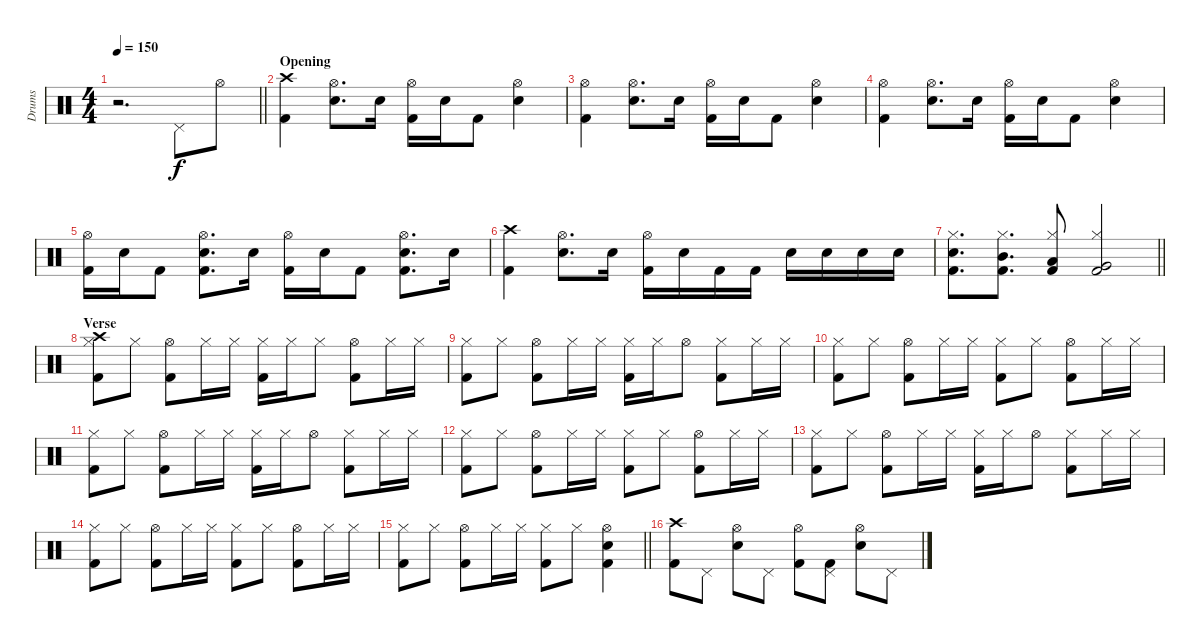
\track ("Drums" "Drums") {instrument percussion}
\staff {score}
\articulation defaults
\ts (4 4)
\tempo 150
\clef neutral
\barLineRight lightlight
\ks c
r.2{d dy f} "Pedal Hi-Hat (hit)".8 "Hi-Hat (open)".8 |
\section ("" "Opening")
("Crash high (hit)" "Kick (hit) 2").4 ("Hi-Hat (open)" "Snare (hit) 2").8{d} "Snare (hit) 2".16 ("Hi-Hat (open)" "Kick (hit) 2").16 "Snare (hit) 2".16 "Kick (hit) 2".8 ("Hi-Hat (open)" "Snare (hit) 2").4 |
("Hi-Hat (open)" "Kick (hit) 2").4 ("Hi-Hat (open)" "Snare (hit) 2").8{d} "Snare (hit) 2".16 ("Hi-Hat (open)" "Kick (hit) 2").16 "Snare (hit) 2".16 "Kick (hit) 2".8 ("Hi-Hat (open)" "Snare (hit) 2").4 |
("Hi-Hat (open)" "Kick (hit) 2").4 ("Hi-Hat (open)" "Snare (hit) 2").8{d} "Snare (hit) 2".16 ("Hi-Hat (open)" "Kick (hit) 2").16 "Snare (hit) 2".16 "Kick (hit) 2".8 ("Hi-Hat (open)" "Snare (hit) 2").4 |
("Hi-Hat (open)" "Kick (hit) 2").16 "Snare (hit) 2".16 "Kick (hit) 2".8 ("Hi-Hat (open)" "Snare (hit) 2" "Kick (hit) 2").8{d} "Snare (hit) 2".16 ("Hi-Hat (open)" "Kick (hit) 2").16 "Snare (hit) 2".16 "Kick (hit) 2".8 ("Hi-Hat (open)" "Snare (hit) 2" "Kick (hit) 2").8{d} "Snare (hit) 2".16 |
("Crash high (hit)" "Kick (hit) 2").4 ("Hi-Hat (open)" "Snare (hit) 2").8{d} "Snare (hit) 2".16 ("Hi-Hat (open)" "Kick (hit) 2").16 "Snare (hit) 2".16 "Kick (hit) 2".16 "Kick (hit) 2".16 "Snare (hit) 2".16 "Snare (hit) 2".16 "Snare (hit) 2".16 "Snare (hit) 2".16 |
\barLineRight lightlight
("Hi-Hat (closed)" "Snare (hit) 2" "Kick (hit) 2").8{d} ("Hi-Hat (closed)" "Mid Tom (hit)" "Kick (hit) 2").8{d} ("Hi-Hat (closed)" "Low Tom (hit)" "Kick (hit) 2").8 ("Hi-Hat (closed)" "Very Low Tom (hit)" "Kick (hit) 2").2 |
\section ("" "Verse")
("Hi-Hat (closed)" "Crash high (hit)" "Kick (hit) 2").8 "Hi-Hat (closed)".8 ("Hi-Hat (open)" "Kick (hit) 2").8 "Hi-Hat (closed)".16 "Hi-Hat (closed)".16 ("Hi-Hat (closed)" "Kick (hit) 2").16 "Hi-Hat (closed)".16 "Hi-Hat (closed)".8 ("Hi-Hat (open)" "Kick (hit) 2").8 "Hi-Hat (closed)".16 "Hi-Hat (closed)".16 |
("Hi-Hat (closed)" "Kick (hit) 2").8 "Hi-Hat (closed)".8 ("Hi-Hat (open)" "Kick (hit) 2").8 "Hi-Hat (closed)".16 "Hi-Hat (closed)".16 ("Hi-Hat (closed)" "Kick (hit) 2").16 "Hi-Hat (closed)".16 "Hi-Hat (open)".8 ("Hi-Hat (closed)" "Kick (hit) 2").8 "Hi-Hat (closed)".16 "Hi-Hat (closed)".16 |
("Hi-Hat (closed)" "Kick (hit) 2").8 "Hi-Hat (closed)".8 ("Hi-Hat (open)" "Kick (hit) 2").8 "Hi-Hat (closed)".16 "Hi-Hat (closed)".16 ("Hi-Hat (closed)" "Kick (hit) 2").8 "Hi-Hat (closed)".8 ("Hi-Hat (open)" "Kick (hit) 2").8 "Hi-Hat (closed)".16 "Hi-Hat (closed)".16 |
("Hi-Hat (closed)" "Kick (hit) 2").8 "Hi-Hat (closed)".8 ("Hi-Hat (open)" "Kick (hit) 2").8 "Hi-Hat (closed)".16 "Hi-Hat (closed)".16 ("Hi-Hat (closed)" "Kick (hit) 2").16 "Hi-Hat (closed)".16 "Hi-Hat (open)".8 ("Hi-Hat (closed)" "Kick (hit) 2").8 "Hi-Hat (closed)".16 "Hi-Hat (closed)".16 |
("Hi-Hat (closed)" "Kick (hit) 2").8 "Hi-Hat (closed)".8 ("Hi-Hat (open)" "Kick (hit) 2").8 "Hi-Hat (closed)".16 "Hi-Hat (closed)".16 ("Hi-Hat (closed)" "Kick (hit) 2").8 "Hi-Hat (closed)".8 ("Hi-Hat (open)" "Kick (hit) 2").8 "Hi-Hat (closed)".16 "Hi-Hat (closed)".16 |
("Hi-Hat (closed)" "Kick (hit) 2").8 "Hi-Hat (closed)".8 ("Hi-Hat (open)" "Kick (hit) 2").8 "Hi-Hat (closed)".16 "Hi-Hat (closed)".16 ("Hi-Hat (closed)" "Kick (hit) 2").16 "Hi-Hat (closed)".16 "Hi-Hat (open)".8 ("Hi-Hat (closed)" "Kick (hit) 2").8 "Hi-Hat (closed)".16 "Hi-Hat (closed)".16 |
("Hi-Hat (closed)" "Kick (hit) 2").8 "Hi-Hat (closed)".8 ("Hi-Hat (open)" "Kick (hit) 2").8 "Hi-Hat (closed)".16 "Hi-Hat (closed)".16 ("Hi-Hat (closed)" "Kick (hit) 2").8 "Hi-Hat (closed)".8 ("Hi-Hat (open)" "Kick (hit) 2").8 "Hi-Hat (closed)".16 "Hi-Hat (closed)".16 |
\barLineRight lightlight
("Hi-Hat (closed)" "Kick (hit) 2").8 "Hi-Hat (closed)".8 ("Hi-Hat (open)" "Kick (hit) 2").8 "Hi-Hat (closed)".16 "Hi-Hat (closed)".16 ("Hi-Hat (closed)" "Kick (hit) 2").8 "Hi-Hat (closed)".8 ("Hi-Hat (open)" "Snare (hit) 2" "Kick (hit) 2").4 |
("Crash high (hit)" "Kick (hit) 2").8 "Pedal Hi-Hat (hit)".8 ("Hi-Hat (open)" "Snare (hit) 2").8 "Pedal Hi-Hat (hit)".8 ("Hi-Hat (open)" "Kick (hit) 2").8 ("Pedal Hi-Hat (hit)" "Kick (hit) 2").8 ("Hi-Hat (open)" "Snare (hit) 2").8 "Pedal Hi-Hat (hit)".8
